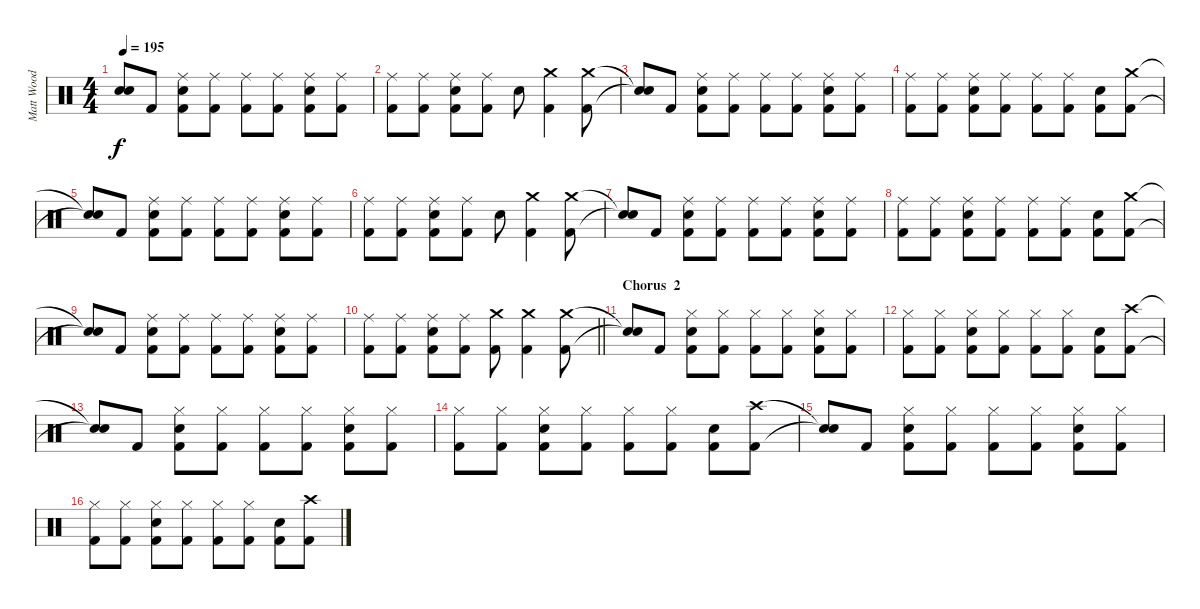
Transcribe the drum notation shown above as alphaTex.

\track ("Matt Wood" "Matt Wood") {instrument percussion}
\staff {score}
\articulation defaults
\ts (4 4)
\tempo 195
\clef neutral
\ks c
("Snare (hit)"{t} "Snare (hit)"{t}).8{dy f} "Kick (hit) 2".8 ("Ride (middle)" "Snare (hit) 2" "Kick (hit) 2").8 ("Ride (middle)" "Kick (hit) 2").8 ("Ride (middle)" "Kick (hit) 2").8 ("Ride (middle)" "Kick (hit) 2").8 ("Ride (middle)" "Snare (hit) 2" "Kick (hit) 2").8 ("Ride (middle)" "Kick (hit) 2").8 |
("Ride (middle)" "Kick (hit) 2").8 ("Ride (middle)" "Kick (hit) 2").8 ("Ride (middle)" "Snare (hit) 2" "Kick (hit) 2").8 ("Ride (middle)" "Kick (hit) 2").8 "Snare (hit) 2".8 ("Crash medium (hit)" "Kick (hit) 2").4 ("Crash medium (hit)" "Kick (hit) 2").8 |
("Snare (hit)"{t} "Snare (hit)"{t}).8 "Kick (hit) 2".8 ("Ride (middle)" "Snare (hit) 2" "Kick (hit) 2").8 ("Ride (middle)" "Kick (hit) 2").8 ("Ride (middle)" "Kick (hit) 2").8 ("Ride (middle)" "Kick (hit) 2").8 ("Ride (middle)" "Snare (hit) 2" "Kick (hit) 2").8 ("Ride (middle)" "Kick (hit) 2").8 |
("Ride (middle)" "Kick (hit) 2").8 ("Ride (middle)" "Kick (hit) 2").8 ("Ride (middle)" "Snare (hit) 2" "Kick (hit) 2").8 ("Ride (middle)" "Kick (hit) 2").8 ("Ride (middle)" "Kick (hit) 2").8 ("Ride (middle)" "Kick (hit) 2").8 ("Snare (hit) 2" "Kick (hit) 2").8 ("Crash medium (hit)" "Kick (hit) 2").8 |
("Snare (hit)"{t} "Snare (hit)"{t}).8 "Kick (hit) 2".8 ("Ride (middle)" "Snare (hit) 2" "Kick (hit) 2").8 ("Ride (middle)" "Kick (hit) 2").8 ("Ride (middle)" "Kick (hit) 2").8 ("Ride (middle)" "Kick (hit) 2").8 ("Ride (middle)" "Snare (hit) 2" "Kick (hit) 2").8 ("Ride (middle)" "Kick (hit) 2").8 |
("Ride (middle)" "Kick (hit) 2").8 ("Ride (middle)" "Kick (hit) 2").8 ("Ride (middle)" "Snare (hit) 2" "Kick (hit) 2").8 ("Ride (middle)" "Kick (hit) 2").8 "Snare (hit) 2".8 ("Crash medium (hit)" "Kick (hit) 2").4 ("Crash medium (hit)" "Kick (hit) 2").8 |
("Snare (hit)"{t} "Snare (hit)"{t}).8 "Kick (hit) 2".8 ("Ride (middle)" "Snare (hit) 2" "Kick (hit) 2").8 ("Ride (middle)" "Kick (hit) 2").8 ("Ride (middle)" "Kick (hit) 2").8 ("Ride (middle)" "Kick (hit) 2").8 ("Ride (middle)" "Snare (hit) 2" "Kick (hit) 2").8 ("Ride (middle)" "Kick (hit) 2").8 |
("Ride (middle)" "Kick (hit) 2").8 ("Ride (middle)" "Kick (hit) 2").8 ("Ride (middle)" "Snare (hit) 2" "Kick (hit) 2").8 ("Ride (middle)" "Kick (hit) 2").8 ("Ride (middle)" "Kick (hit) 2").8 ("Ride (middle)" "Kick (hit) 2").8 ("Snare (hit) 2" "Kick (hit) 2").8 ("Crash medium (hit)" "Kick (hit) 2").8 |
("Snare (hit)"{t} "Snare (hit)"{t}).8 "Kick (hit) 2".8 ("Ride (middle)" "Snare (hit) 2" "Kick (hit) 2").8 ("Ride (middle)" "Kick (hit) 2").8 ("Ride (middle)" "Kick (hit) 2").8 ("Ride (middle)" "Kick (hit) 2").8 ("Ride (middle)" "Snare (hit) 2" "Kick (hit) 2").8 ("Ride (middle)" "Kick (hit) 2").8 |
\barLineRight lightlight
("Ride (middle)" "Kick (hit) 2").8 ("Ride (middle)" "Kick (hit) 2").8 ("Ride (middle)" "Snare (hit) 2" "Kick (hit) 2").8 ("Ride (middle)" "Kick (hit) 2").8 ("Crash medium (hit)" "Kick (hit) 2").8 ("Crash medium (hit)" "Kick (hit) 2").4 ("Crash medium (hit)" "Kick (hit) 2").8 |
\section ("" "Chorus  2")
("Snare (hit)"{t} "Snare (hit)"{t}).8 "Kick (hit) 2".8 ("Hi-Hat (closed)" "Snare (hit) 2" "Kick (hit) 2").8 ("Hi-Hat (closed)" "Kick (hit) 2").8 ("Hi-Hat (closed)" "Kick (hit) 2").8 ("Hi-Hat (closed)" "Kick (hit) 2").8 ("Hi-Hat (closed)" "Snare (hit) 2" "Kick (hit) 2").8 ("Hi-Hat (closed)" "Kick (hit) 2").8 |
("Hi-Hat (closed)" "Kick (hit) 2").8 ("Hi-Hat (closed)" "Kick (hit) 2").8 ("Hi-Hat (closed)" "Snare (hit) 2" "Kick (hit) 2").8 ("Hi-Hat (closed)" "Kick (hit) 2").8 ("Hi-Hat (closed)" "Kick (hit) 2").8 ("Hi-Hat (closed)" "Kick (hit) 2").8 ("Snare (hit) 2" "Kick (hit) 2").8 ("Crash high (hit)" "Kick (hit) 2").8 |
("Snare (hit)"{t} "Snare (hit)"{t}).8 "Kick (hit) 2".8 ("Hi-Hat (closed)" "Snare (hit) 2" "Kick (hit) 2").8 ("Hi-Hat (closed)" "Kick (hit) 2").8 ("Hi-Hat (closed)" "Kick (hit) 2").8 ("Hi-Hat (closed)" "Kick (hit) 2").8 ("Hi-Hat (closed)" "Snare (hit) 2" "Kick (hit) 2").8 ("Hi-Hat (closed)" "Kick (hit) 2").8 |
("Hi-Hat (closed)" "Kick (hit) 2").8 ("Hi-Hat (closed)" "Kick (hit) 2").8 ("Hi-Hat (closed)" "Snare (hit) 2" "Kick (hit) 2").8 ("Hi-Hat (closed)" "Kick (hit) 2").8 ("Hi-Hat (closed)" "Kick (hit) 2").8 ("Hi-Hat (closed)" "Kick (hit) 2").8 ("Snare (hit) 2" "Kick (hit) 2").8 ("Crash high (hit)" "Kick (hit) 2").8 |
("Snare (hit)"{t} "Snare (hit)"{t}).8 "Kick (hit) 2".8 ("Hi-Hat (closed)" "Snare (hit) 2" "Kick (hit) 2").8 ("Hi-Hat (closed)" "Kick (hit) 2").8 ("Hi-Hat (closed)" "Kick (hit) 2").8 ("Hi-Hat (closed)" "Kick (hit) 2").8 ("Hi-Hat (closed)" "Snare (hit) 2" "Kick (hit) 2").8 ("Hi-Hat (closed)" "Kick (hit) 2").8 |
("Hi-Hat (closed)" "Kick (hit) 2").8 ("Hi-Hat (closed)" "Kick (hit) 2").8 ("Hi-Hat (closed)" "Snare (hit) 2" "Kick (hit) 2").8 ("Hi-Hat (closed)" "Kick (hit) 2").8 ("Hi-Hat (closed)" "Kick (hit) 2").8 ("Hi-Hat (closed)" "Kick (hit) 2").8 ("Snare (hit) 2" "Kick (hit) 2").8 ("Crash high (hit)" "Kick (hit) 2").8
